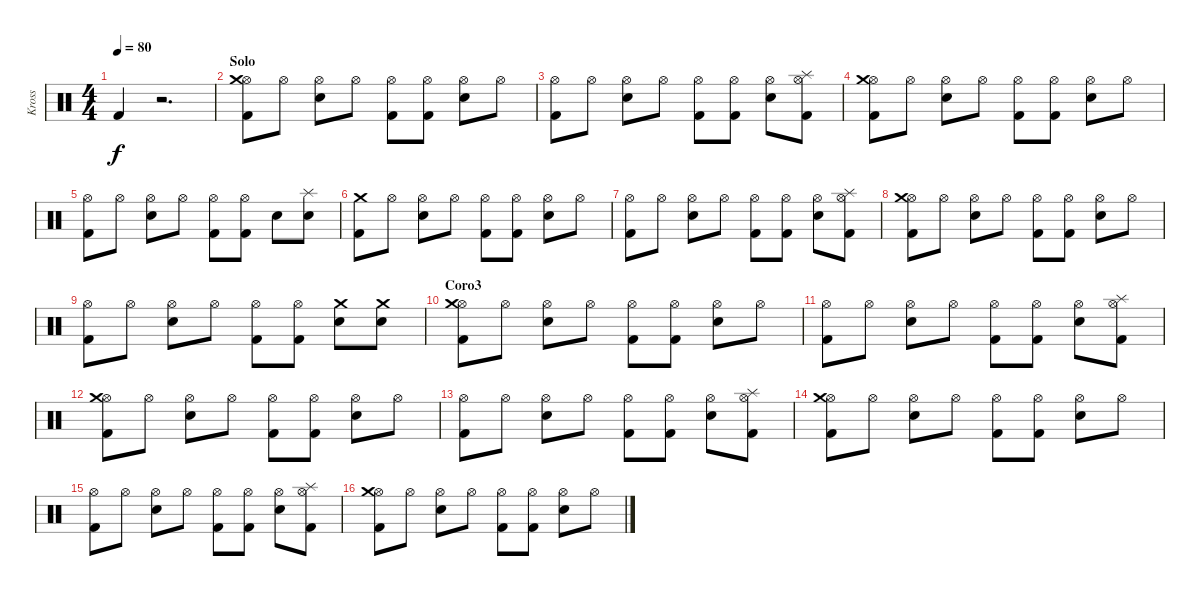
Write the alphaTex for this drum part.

\track ("Kross" "Kross") {instrument percussion}
\staff {score}
\articulation defaults
\ts (4 4)
\tempo 80
\clef neutral
\ks c "Kick (hit) 2".4{dy f}
r.2{d} |
\section ("" "Solo")
("Hi-Hat (open)" "Crash medium (hit)" "Kick (hit) 2").8 "Hi-Hat (open)".8 ("Hi-Hat (open)" "Snare (hit) 2").8 "Hi-Hat (open)".8 ("Hi-Hat (open)" "Kick (hit) 2").8 ("Hi-Hat (open)" "Kick (hit) 2").8 ("Hi-Hat (open)" "Snare (hit) 2").8 "Hi-Hat (open)".8 |
("Hi-Hat (open)" "Kick (hit) 2").8 "Hi-Hat (open)".8 ("Hi-Hat (open)" "Snare (hit) 2").8 "Hi-Hat (open)".8 ("Hi-Hat (open)" "Kick (hit) 2").8 ("Hi-Hat (open)" "Kick (hit) 2").8 ("Hi-Hat (open)" "Snare (hit) 2").8 ("Hi-Hat (open)" "Splash (hit)" "Kick (hit) 2").8 |
("Hi-Hat (open)" "Crash medium (hit)" "Kick (hit) 2").8 "Hi-Hat (open)".8 ("Hi-Hat (open)" "Snare (hit) 2").8 "Hi-Hat (open)".8 ("Hi-Hat (open)" "Kick (hit) 2").8 ("Hi-Hat (open)" "Kick (hit) 2").8 ("Hi-Hat (open)" "Snare (hit) 2").8 "Hi-Hat (open)".8 |
("Hi-Hat (open)" "Kick (hit) 2").8 "Hi-Hat (open)".8 ("Hi-Hat (open)" "Snare (hit) 2").8 "Hi-Hat (open)".8 ("Hi-Hat (open)" "Kick (hit) 2").8 ("Hi-Hat (open)" "Kick (hit) 2").8 "Snare (hit) 2".8 ("Splash (hit)" "Snare (hit) 2").8 |
("Crash medium (hit)" "Kick (hit) 2").8 "Hi-Hat (open)".8 ("Hi-Hat (open)" "Snare (hit) 2").8 "Hi-Hat (open)".8 ("Hi-Hat (open)" "Kick (hit) 2").8 ("Hi-Hat (open)" "Kick (hit) 2").8 ("Hi-Hat (open)" "Snare (hit) 2").8 "Hi-Hat (open)".8 |
("Hi-Hat (open)" "Kick (hit) 2").8 "Hi-Hat (open)".8 ("Hi-Hat (open)" "Snare (hit) 2").8 "Hi-Hat (open)".8 ("Hi-Hat (open)" "Kick (hit) 2").8 ("Hi-Hat (open)" "Kick (hit) 2").8 ("Hi-Hat (open)" "Snare (hit) 2").8 ("Hi-Hat (open)" "Splash (hit)" "Kick (hit) 2").8 |
("Hi-Hat (open)" "Crash medium (hit)" "Kick (hit) 2").8 "Hi-Hat (open)".8 ("Hi-Hat (open)" "Snare (hit) 2").8 "Hi-Hat (open)".8 ("Hi-Hat (open)" "Kick (hit) 2").8 ("Hi-Hat (open)" "Kick (hit) 2").8 ("Hi-Hat (open)" "Snare (hit) 2").8 "Hi-Hat (open)".8 |
("Hi-Hat (open)" "Kick (hit) 2").8 "Hi-Hat (open)".8 ("Hi-Hat (open)" "Snare (hit) 2").8 "Hi-Hat (open)".8 ("Hi-Hat (open)" "Kick (hit) 2").8 ("Hi-Hat (open)" "Kick (hit) 2").8 ("Crash medium (hit)" "Snare (hit) 2").8 ("Crash medium (hit)" "Snare (hit) 2").8 |
\section ("" "Coro3")
("Hi-Hat (open)" "Crash medium (hit)" "Kick (hit) 2").8 "Hi-Hat (open)".8 ("Hi-Hat (open)" "Snare (hit) 2").8 "Hi-Hat (open)".8 ("Hi-Hat (open)" "Kick (hit) 2").8 ("Hi-Hat (open)" "Kick (hit) 2").8 ("Hi-Hat (open)" "Snare (hit) 2").8 "Hi-Hat (open)".8 |
("Hi-Hat (open)" "Kick (hit) 2").8 "Hi-Hat (open)".8 ("Hi-Hat (open)" "Snare (hit) 2").8 "Hi-Hat (open)".8 ("Hi-Hat (open)" "Kick (hit) 2").8 ("Hi-Hat (open)" "Kick (hit) 2").8 ("Hi-Hat (open)" "Snare (hit) 2").8 ("Hi-Hat (open)" "Splash (hit)" "Kick (hit) 2").8 |
("Hi-Hat (open)" "Crash medium (hit)" "Kick (hit) 2").8 "Hi-Hat (open)".8 ("Hi-Hat (open)" "Snare (hit) 2").8 "Hi-Hat (open)".8 ("Hi-Hat (open)" "Kick (hit) 2").8 ("Hi-Hat (open)" "Kick (hit) 2").8 ("Hi-Hat (open)" "Snare (hit) 2").8 "Hi-Hat (open)".8 |
("Hi-Hat (open)" "Kick (hit) 2").8 "Hi-Hat (open)".8 ("Hi-Hat (open)" "Snare (hit) 2").8 "Hi-Hat (open)".8 ("Hi-Hat (open)" "Kick (hit) 2").8 ("Hi-Hat (open)" "Kick (hit) 2").8 ("Hi-Hat (open)" "Snare (hit) 2").8 ("Hi-Hat (open)" "Splash (hit)" "Kick (hit) 2").8 |
("Hi-Hat (open)" "Crash medium (hit)" "Kick (hit) 2").8 "Hi-Hat (open)".8 ("Hi-Hat (open)" "Snare (hit) 2").8 "Hi-Hat (open)".8 ("Hi-Hat (open)" "Kick (hit) 2").8 ("Hi-Hat (open)" "Kick (hit) 2").8 ("Hi-Hat (open)" "Snare (hit) 2").8 "Hi-Hat (open)".8 |
("Hi-Hat (open)" "Kick (hit) 2").8 "Hi-Hat (open)".8 ("Hi-Hat (open)" "Snare (hit) 2").8 "Hi-Hat (open)".8 ("Hi-Hat (open)" "Kick (hit) 2").8 ("Hi-Hat (open)" "Kick (hit) 2").8 ("Hi-Hat (open)" "Snare (hit) 2").8 ("Hi-Hat (open)" "Splash (hit)" "Kick (hit) 2").8 |
("Hi-Hat (open)" "Crash medium (hit)" "Kick (hit) 2").8 "Hi-Hat (open)".8 ("Hi-Hat (open)" "Snare (hit) 2").8 "Hi-Hat (open)".8 ("Hi-Hat (open)" "Kick (hit) 2").8 ("Hi-Hat (open)" "Kick (hit) 2").8 ("Hi-Hat (open)" "Snare (hit) 2").8 "Hi-Hat (open)".8
